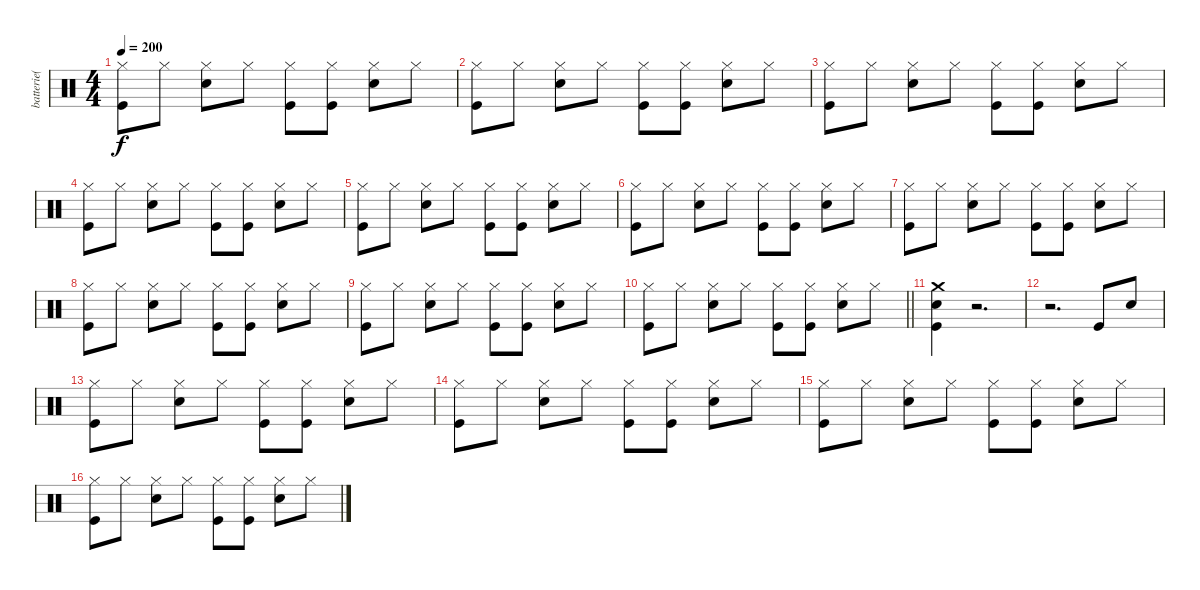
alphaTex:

\track ("batterie( Guillaume ) " "batterie( ") {instrument percussion}
\staff {score}
\articulation defaults
\ts (4 4)
\tempo 200
\clef neutral
\ks c
("Hi-Hat (closed)" "Kick (hit)").8{dy f} "Hi-Hat (closed)".8 ("Hi-Hat (closed)" "Snare (hit) 2").8 "Hi-Hat (closed)".8 ("Hi-Hat (closed)" "Kick (hit)").8 ("Hi-Hat (closed)" "Kick (hit)").8 ("Hi-Hat (closed)" "Snare (hit) 2").8 "Hi-Hat (closed)".8 |
("Hi-Hat (closed)" "Kick (hit)").8 "Hi-Hat (closed)".8 ("Hi-Hat (closed)" "Snare (hit) 2").8 "Hi-Hat (closed)".8 ("Hi-Hat (closed)" "Kick (hit)").8 ("Hi-Hat (closed)" "Kick (hit)").8 ("Hi-Hat (closed)" "Snare (hit) 2").8 "Hi-Hat (closed)".8 |
("Hi-Hat (closed)" "Kick (hit)").8 "Hi-Hat (closed)".8 ("Hi-Hat (closed)" "Snare (hit) 2").8 "Hi-Hat (closed)".8 ("Hi-Hat (closed)" "Kick (hit)").8 ("Hi-Hat (closed)" "Kick (hit)").8 ("Hi-Hat (closed)" "Snare (hit) 2").8 "Hi-Hat (closed)".8 |
("Hi-Hat (closed)" "Kick (hit)").8 "Hi-Hat (closed)".8 ("Hi-Hat (closed)" "Snare (hit) 2").8 "Hi-Hat (closed)".8 ("Hi-Hat (closed)" "Kick (hit)").8 ("Hi-Hat (closed)" "Kick (hit)").8 ("Hi-Hat (closed)" "Snare (hit) 2").8 "Hi-Hat (closed)".8 |
("Hi-Hat (closed)" "Kick (hit)").8 "Hi-Hat (closed)".8 ("Hi-Hat (closed)" "Snare (hit) 2").8 "Hi-Hat (closed)".8 ("Hi-Hat (closed)" "Kick (hit)").8 ("Hi-Hat (closed)" "Kick (hit)").8 ("Hi-Hat (closed)" "Snare (hit) 2").8 "Hi-Hat (closed)".8 |
("Hi-Hat (closed)" "Kick (hit)").8 "Hi-Hat (closed)".8 ("Hi-Hat (closed)" "Snare (hit) 2").8 "Hi-Hat (closed)".8 ("Hi-Hat (closed)" "Kick (hit)").8 ("Hi-Hat (closed)" "Kick (hit)").8 ("Hi-Hat (closed)" "Snare (hit) 2").8 "Hi-Hat (closed)".8 |
("Hi-Hat (closed)" "Kick (hit)").8 "Hi-Hat (closed)".8 ("Hi-Hat (closed)" "Snare (hit) 2").8 "Hi-Hat (closed)".8 ("Hi-Hat (closed)" "Kick (hit)").8 ("Hi-Hat (closed)" "Kick (hit)").8 ("Hi-Hat (closed)" "Snare (hit) 2").8 "Hi-Hat (closed)".8 |
("Hi-Hat (closed)" "Kick (hit)").8 "Hi-Hat (closed)".8 ("Hi-Hat (closed)" "Snare (hit) 2").8 "Hi-Hat (closed)".8 ("Hi-Hat (closed)" "Kick (hit)").8 ("Hi-Hat (closed)" "Kick (hit)").8 ("Hi-Hat (closed)" "Snare (hit) 2").8 "Hi-Hat (closed)".8 |
("Hi-Hat (closed)" "Kick (hit)").8 "Hi-Hat (closed)".8 ("Hi-Hat (closed)" "Snare (hit) 2").8 "Hi-Hat (closed)".8 ("Hi-Hat (closed)" "Kick (hit)").8 ("Hi-Hat (closed)" "Kick (hit)").8 ("Hi-Hat (closed)" "Snare (hit) 2").8 "Hi-Hat (closed)".8 |
\barLineRight lightlight
("Hi-Hat (closed)" "Kick (hit)").8 "Hi-Hat (closed)".8 ("Hi-Hat (closed)" "Snare (hit) 2").8 "Hi-Hat (closed)".8 ("Hi-Hat (closed)" "Kick (hit)").8 ("Hi-Hat (closed)" "Kick (hit)").8 ("Hi-Hat (closed)" "Snare (hit) 2").8 "Hi-Hat (closed)".8 |
("Crash medium (hit)" "Snare (hit) 2" "Kick (hit)").4 r.2{d} |
r.2{d} "Kick (hit)".8 "Snare (hit) 2".8 |
("Hi-Hat (closed)" "Kick (hit)").8 "Hi-Hat (closed)".8 ("Hi-Hat (closed)" "Snare (hit) 2").8 "Hi-Hat (closed)".8 ("Hi-Hat (closed)" "Kick (hit)").8 ("Hi-Hat (closed)" "Kick (hit)").8 ("Hi-Hat (closed)" "Snare (hit) 2").8 "Hi-Hat (closed)".8 |
("Hi-Hat (closed)" "Kick (hit)").8 "Hi-Hat (closed)".8 ("Hi-Hat (closed)" "Snare (hit) 2").8 "Hi-Hat (closed)".8 ("Hi-Hat (closed)" "Kick (hit)").8 ("Hi-Hat (closed)" "Kick (hit)").8 ("Hi-Hat (closed)" "Snare (hit) 2").8 "Hi-Hat (closed)".8 |
("Hi-Hat (closed)" "Kick (hit)").8 "Hi-Hat (closed)".8 ("Hi-Hat (closed)" "Snare (hit) 2").8 "Hi-Hat (closed)".8 ("Hi-Hat (closed)" "Kick (hit)").8 ("Hi-Hat (closed)" "Kick (hit)").8 ("Hi-Hat (closed)" "Snare (hit) 2").8 "Hi-Hat (closed)".8 |
("Hi-Hat (closed)" "Kick (hit)").8 "Hi-Hat (closed)".8 ("Hi-Hat (closed)" "Snare (hit) 2").8 "Hi-Hat (closed)".8 ("Hi-Hat (closed)" "Kick (hit)").8 ("Hi-Hat (closed)" "Kick (hit)").8 ("Hi-Hat (closed)" "Snare (hit) 2").8 "Hi-Hat (closed)".8
